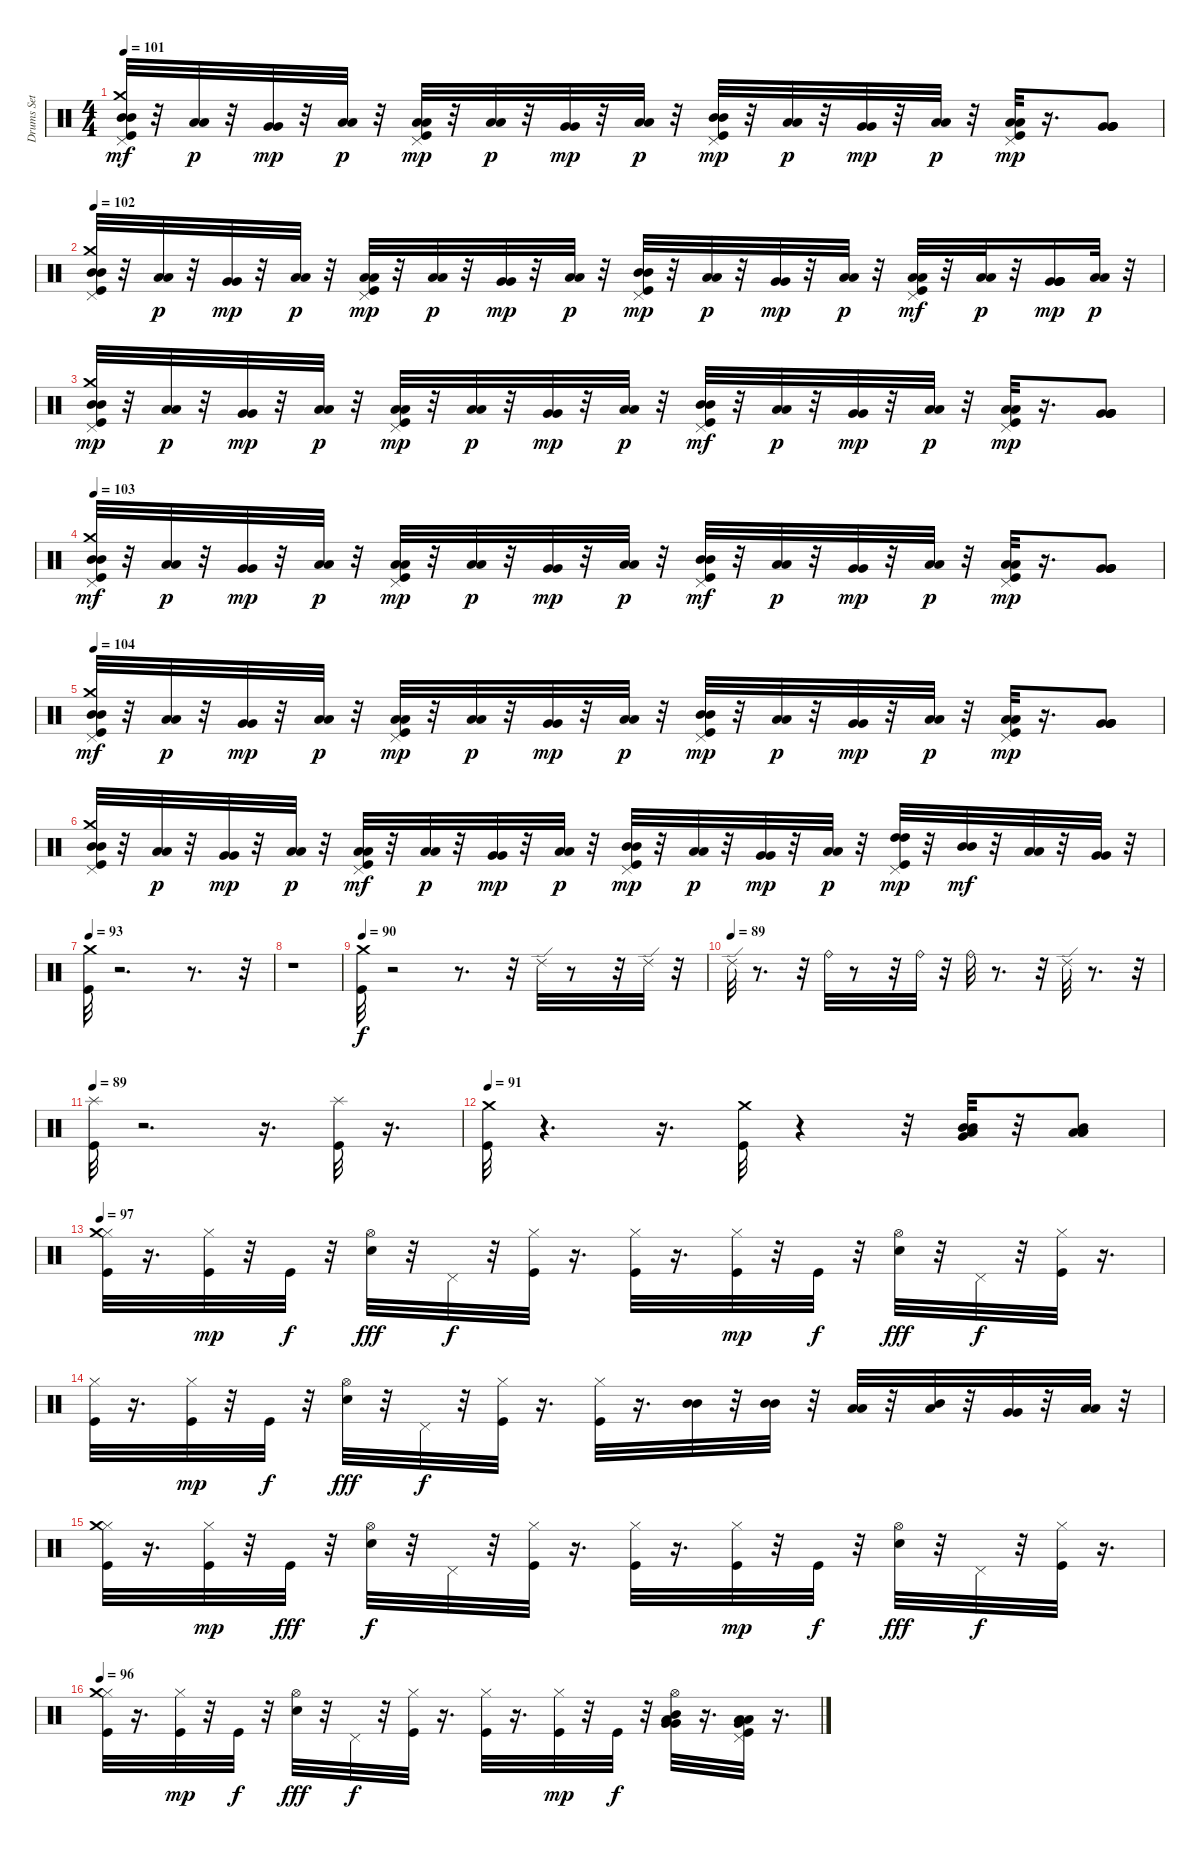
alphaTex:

\track ("Drums Set" "Drums Set") {instrument percussion}
\staff {score}
\articulation defaults
\ts (4 4)
\tempo 101
\clef neutral
\ks c
("Mid Tom (hit)" "Crash medium (hit)" "Mid Tom (hit)" "Pedal Hi-Hat (hit)" "Kick (hit)").32{dy mf} r.32 ("Low Floor Tom (hit)" "Low Floor Tom (hit)").32{dy p} r.32 ("Very Low Tom (hit)" "Very Low Tom (hit)").32{dy mp} r.32 ("Low Floor Tom (hit)" "Low Floor Tom (hit)").32{dy p} r.32 ("Low Tom (hit)" "Pedal Hi-Hat (hit)" "Kick (hit)" "Low Tom (hit)").32{dy mp} r.32 ("Low Floor Tom (hit)" "Low Floor Tom (hit)").32{dy p} r.32 ("Very Low Tom (hit)" "Very Low Tom (hit)").32{dy mp} r.32 ("Low Floor Tom (hit)" "Low Floor Tom (hit)").32{dy p} r.32 ("Mid Tom (hit)" "Mid Tom (hit)" "Kick (hit)" "Pedal Hi-Hat (hit)").32{dy mp} r.32 ("Low Floor Tom (hit)" "Low Floor Tom (hit)").32{dy p} r.32 ("Very Low Tom (hit)" "Very Low Tom (hit)").32{dy mp} r.32 ("Low Floor Tom (hit)" "Low Floor Tom (hit)").32{dy p} r.32 ("Low Tom (hit)" "Low Tom (hit)" "Kick (hit)" "Pedal Hi-Hat (hit)").32{dy mp} r.16{d} ("Very Low Tom (hit)" "Very Low Tom (hit)" "Very Low Tom (hit)" "Very Low Tom (hit)").8 |
\tempo 102
("Mid Tom (hit)" "Crash medium (hit)" "Mid Tom (hit)" "Kick (hit)" "Pedal Hi-Hat (hit)").32 r.32 ("Low Floor Tom (hit)" "Low Floor Tom (hit)").32{dy p} r.32 ("Very Low Tom (hit)" "Very Low Tom (hit)").32{dy mp} r.32 ("Low Floor Tom (hit)" "Low Floor Tom (hit)").32{dy p} r.32 ("Low Tom (hit)" "Low Tom (hit)" "Kick (hit)" "Pedal Hi-Hat (hit)").32{dy mp} r.32 ("Low Floor Tom (hit)" "Low Floor Tom (hit)").32{dy p} r.32 ("Very Low Tom (hit)" "Very Low Tom (hit)").32{dy mp} r.32 ("Low Floor Tom (hit)" "Low Floor Tom (hit)").32{dy p} r.32 ("Mid Tom (hit)" "Mid Tom (hit)" "Kick (hit)" "Pedal Hi-Hat (hit)").32{dy mp} r.32 ("Low Floor Tom (hit)" "Low Floor Tom (hit)").32{dy p} r.32 ("Very Low Tom (hit)" "Very Low Tom (hit)").32{dy mp} r.32 ("Low Floor Tom (hit)" "Low Floor Tom (hit)").32{dy p} r.32 ("Low Tom (hit)" "Pedal Hi-Hat (hit)" "Low Tom (hit)" "Kick (hit)").32{dy mf} r.32 ("Low Floor Tom (hit)" "Low Floor Tom (hit)").32{dy p} r.32 ("Very Low Tom (hit)" "Very Low Tom (hit)" "Very Low Tom (hit)" "Very Low Tom (hit)").16{dy mp} ("Low Floor Tom (hit)" "Low Floor Tom (hit)").32{dy p} r.32 |
("Mid Tom (hit)" "Crash medium (hit)" "Kick (hit)" "Pedal Hi-Hat (hit)" "Mid Tom (hit)").32{dy mp} r.32 ("Low Floor Tom (hit)" "Low Floor Tom (hit)").32{dy p} r.32 ("Very Low Tom (hit)" "Very Low Tom (hit)").32{dy mp} r.32 ("Low Floor Tom (hit)" "Low Floor Tom (hit)").32{dy p} r.32 ("Low Tom (hit)" "Kick (hit)" "Low Tom (hit)" "Pedal Hi-Hat (hit)").32{dy mp} r.32 ("Low Floor Tom (hit)" "Low Floor Tom (hit)").32{dy p} r.32 ("Very Low Tom (hit)" "Very Low Tom (hit)").32{dy mp} r.32 ("Low Floor Tom (hit)" "Low Floor Tom (hit)").32{dy p} r.32 ("Mid Tom (hit)" "Mid Tom (hit)" "Pedal Hi-Hat (hit)" "Kick (hit)").32{dy mf} r.32 ("Low Floor Tom (hit)" "Low Floor Tom (hit)").32{dy p} r.32 ("Very Low Tom (hit)" "Very Low Tom (hit)").32{dy mp} r.32 ("Low Floor Tom (hit)" "Low Floor Tom (hit)").32{dy p} r.32 ("Low Tom (hit)" "Low Tom (hit)" "Kick (hit)" "Pedal Hi-Hat (hit)").32{dy mp} r.16{d} ("Very Low Tom (hit)" "Very Low Tom (hit)" "Very Low Tom (hit)" "Very Low Tom (hit)").8 |
\tempo 103
("Mid Tom (hit)" "Mid Tom (hit)" "Pedal Hi-Hat (hit)" "Kick (hit)" "Crash medium (hit)").32{dy mf} r.32 ("Low Floor Tom (hit)" "Low Floor Tom (hit)").32{dy p} r.32 ("Very Low Tom (hit)" "Very Low Tom (hit)").32{dy mp} r.32 ("Low Floor Tom (hit)" "Low Floor Tom (hit)").32{dy p} r.32 ("Low Tom (hit)" "Kick (hit)" "Low Tom (hit)" "Pedal Hi-Hat (hit)").32{dy mp} r.32 ("Low Floor Tom (hit)" "Low Floor Tom (hit)").32{dy p} r.32 ("Very Low Tom (hit)" "Very Low Tom (hit)").32{dy mp} r.32 ("Low Floor Tom (hit)" "Low Floor Tom (hit)").32{dy p} r.32 ("Mid Tom (hit)" "Mid Tom (hit)" "Pedal Hi-Hat (hit)" "Kick (hit)").32{dy mf} r.32 ("Low Floor Tom (hit)" "Low Floor Tom (hit)").32{dy p} r.32 ("Very Low Tom (hit)" "Very Low Tom (hit)").32{dy mp} r.32 ("Low Floor Tom (hit)" "Low Floor Tom (hit)").32{dy p} r.32 ("Low Tom (hit)" "Low Tom (hit)" "Kick (hit)" "Pedal Hi-Hat (hit)").32{dy mp} r.16{d} ("Very Low Tom (hit)" "Very Low Tom (hit)" "Very Low Tom (hit)" "Very Low Tom (hit)").8 |
\tempo 104
("Mid Tom (hit)" "Crash medium (hit)" "Mid Tom (hit)" "Pedal Hi-Hat (hit)" "Kick (hit)").32{dy mf} r.32 ("Low Floor Tom (hit)" "Low Floor Tom (hit)").32{dy p} r.32 ("Very Low Tom (hit)" "Very Low Tom (hit)").32{dy mp} r.32 ("Low Floor Tom (hit)" "Low Floor Tom (hit)").32{dy p} r.32 ("Low Tom (hit)" "Pedal Hi-Hat (hit)" "Kick (hit)" "Low Tom (hit)").32{dy mp} r.32 ("Low Floor Tom (hit)" "Low Floor Tom (hit)").32{dy p} r.32 ("Very Low Tom (hit)" "Very Low Tom (hit)").32{dy mp} r.32 ("Low Floor Tom (hit)" "Low Floor Tom (hit)").32{dy p} r.32 ("Mid Tom (hit)" "Mid Tom (hit)" "Kick (hit)" "Pedal Hi-Hat (hit)").32{dy mp} r.32 ("Low Floor Tom (hit)" "Low Floor Tom (hit)").32{dy p} r.32 ("Very Low Tom (hit)" "Very Low Tom (hit)").32{dy mp} r.32 ("Low Floor Tom (hit)" "Low Floor Tom (hit)").32{dy p} r.32 ("Low Tom (hit)" "Kick (hit)" "Low Tom (hit)" "Pedal Hi-Hat (hit)").32{dy mp} r.16{d} ("Very Low Tom (hit)" "Very Low Tom (hit)" "Very Low Tom (hit)" "Very Low Tom (hit)").8 |
("Mid Tom (hit)" "Kick (hit)" "Crash medium (hit)" "Mid Tom (hit)" "Pedal Hi-Hat (hit)").32 r.32 ("Low Floor Tom (hit)" "Low Floor Tom (hit)").32{dy p} r.32 ("Very Low Tom (hit)" "Very Low Tom (hit)").32{dy mp} r.32 ("Low Floor Tom (hit)" "Low Floor Tom (hit)").32{dy p} r.32 ("Low Tom (hit)" "Low Tom (hit)" "Pedal Hi-Hat (hit)" "Kick (hit)").32{dy mf} r.32 ("Low Floor Tom (hit)" "Low Floor Tom (hit)").32{dy p} r.32 ("Very Low Tom (hit)" "Very Low Tom (hit)").32{dy mp} r.32 ("Low Floor Tom (hit)" "Low Floor Tom (hit)").32{dy p} r.32 ("Mid Tom (hit)" "Pedal Hi-Hat (hit)" "Kick (hit)" "Mid Tom (hit)").32{dy mp} r.32 ("Low Floor Tom (hit)" "Low Floor Tom (hit)").32{dy p} r.32 ("Very Low Tom (hit)" "Very Low Tom (hit)").32{dy mp} r.32 ("Low Floor Tom (hit)" "Low Floor Tom (hit)").32{dy p} r.32 ("High Tom (hit)" "High Tom (hit)" "Kick (hit)" "Pedal Hi-Hat (hit)").32{dy mp} r.32 ("Mid Tom (hit)" "Mid Tom (hit)").32{dy mf} r.32 ("Low Tom (hit)" "Low Tom (hit)").32 r.32 ("Very Low Tom (hit)" "Very Low Tom (hit)").32 r.32 |
\tempo 93
("Crash medium (hit)" "Kick (hit)").32 r.2{d} r.8{d} r.32 |
r.1 |
\tempo 90
("Crash medium (hit)" "Kick (hit)").32{dy f} r.2 r.8{d} r.32 "Ride (edge) 2".32 r.8 r.32 "Ride (edge) 2".32 r.32 |
\tempo (89)
"Ride (edge) 2".32 r.8{d} r.32 "Ride (bell)".32 r.8 r.32 "Ride (bell)".32 r.32 "Ride (bell)".32 r.8{d} r.32 "Ride (edge) 2".32 r.8{d} r.32 |
\tempo 89
("Splash (hit)" "Kick (hit)").32 r.2{d} r.16{d} ("Splash (hit)" "Kick (hit)").32 r.16{d} |
\tempo 91
("Kick (hit)" "Crash medium (hit)").32 r.4{d} r.16{d} ("Crash medium (hit)" "Kick (hit)").32 r.4 r.32 ("Mid Tom (hit)" "Very Low Tom (hit)" "Mid Tom (hit)" "Low Tom (hit)").32 r.32 ("Low Tom (hit)" "Low Floor Tom (hit)" "Mid Tom (hit)" "Low Tom (hit)").8 |
\tempo 97
("Hi-Hat (closed)" "Kick (hit)" "Crash medium (hit)").32 r.16{d} ("Kick (hit)" "Hi-Hat (closed)").32{dy mp} r.32 "Kick (hit)".32{dy f} r.32 ("Hi-Hat (open)" "Snare (hit) 2").32{dy fff} r.32 "Pedal Hi-Hat (hit)".32{dy f} r.32 ("Hi-Hat (closed)" "Kick (hit)").32 r.16{d} ("Hi-Hat (closed)" "Kick (hit)").32 r.16{d} ("Hi-Hat (closed)" "Kick (hit)").32{dy mp} r.32 "Kick (hit)".32{dy f} r.32 ("Hi-Hat (open)" "Snare (hit) 2").32{dy fff} r.32 "Pedal Hi-Hat (hit)".32{dy f} r.32 ("Kick (hit)" "Hi-Hat (closed)").32 r.16{d} |
("Kick (hit)" "Hi-Hat (closed)").32 r.16{d} ("Hi-Hat (closed)" "Kick (hit)").32{dy mp} r.32 "Kick (hit)".32{dy f} r.32 ("Snare (hit) 2" "Hi-Hat (open)").32{dy fff} r.32 "Pedal Hi-Hat (hit)".32{dy f} r.32 ("Hi-Hat (closed)" "Kick (hit)").32 r.16{d} ("Kick (hit)" "Hi-Hat (closed)").32 r.16{d} ("Mid Tom (hit)" "Mid Tom (hit)").32 r.32 ("Mid Tom (hit)" "Mid Tom (hit)").32 r.32 ("Low Tom (hit)" "Low Tom (hit)").32 r.32 ("Low Tom (hit)" "Mid Tom (hit)").32 r.32 ("Very Low Tom (hit)" "Very Low Tom (hit)").32 r.32 ("Low Floor Tom (hit)" "Low Floor Tom (hit)").32 r.32 |
("Kick (hit)" "Hi-Hat (closed)" "Crash medium (hit)").32 r.16{d} ("Kick (hit)" "Hi-Hat (closed)").32{dy mp} r.32 "Kick (hit)".32{dy fff} r.32 ("Snare (hit) 2" "Hi-Hat (open)").32{dy f} r.32 "Pedal Hi-Hat (hit)".32 r.32 ("Kick (hit)" "Hi-Hat (closed)").32 r.16{d} ("Kick (hit)" "Hi-Hat (closed)").32 r.16{d} ("Kick (hit)" "Hi-Hat (closed)").32{dy mp} r.32 "Kick (hit)".32{dy f} r.32 ("Snare (hit) 2" "Hi-Hat (open)").32{dy fff} r.32 "Pedal Hi-Hat (hit)".32{dy f} r.32 ("Kick (hit)" "Hi-Hat (closed)").32 r.16{d} |
\tempo 96
("Kick (hit)" "Hi-Hat (closed)" "Crash medium (hit)").32 r.16{d} ("Kick (hit)" "Hi-Hat (closed)").32{dy mp} r.32 "Kick (hit)".32{dy f} r.32 ("Snare (hit) 2" "Hi-Hat (open)").32{dy fff} r.32 "Pedal Hi-Hat (hit)".32{dy f} r.32 ("Kick (hit)" "Hi-Hat (closed)").32 r.16{d} ("Kick (hit)" "Hi-Hat (closed)").32 r.16{d} ("Kick (hit)" "Hi-Hat (closed)").32{dy mp} r.32 "Kick (hit)".32{dy f} r.32 ("Very Low Tom (hit)" "Low Tom (hit)" "Mid Tom (hit)" "Hi-Hat (open)" "Very Low Tom (hit)").32 r.16{d} ("Low Floor Tom (hit)" "Very Low Tom (hit)" "Kick (hit)" "Low Floor Tom (hit)" "Pedal Hi-Hat (hit)").32 r.16{d}
